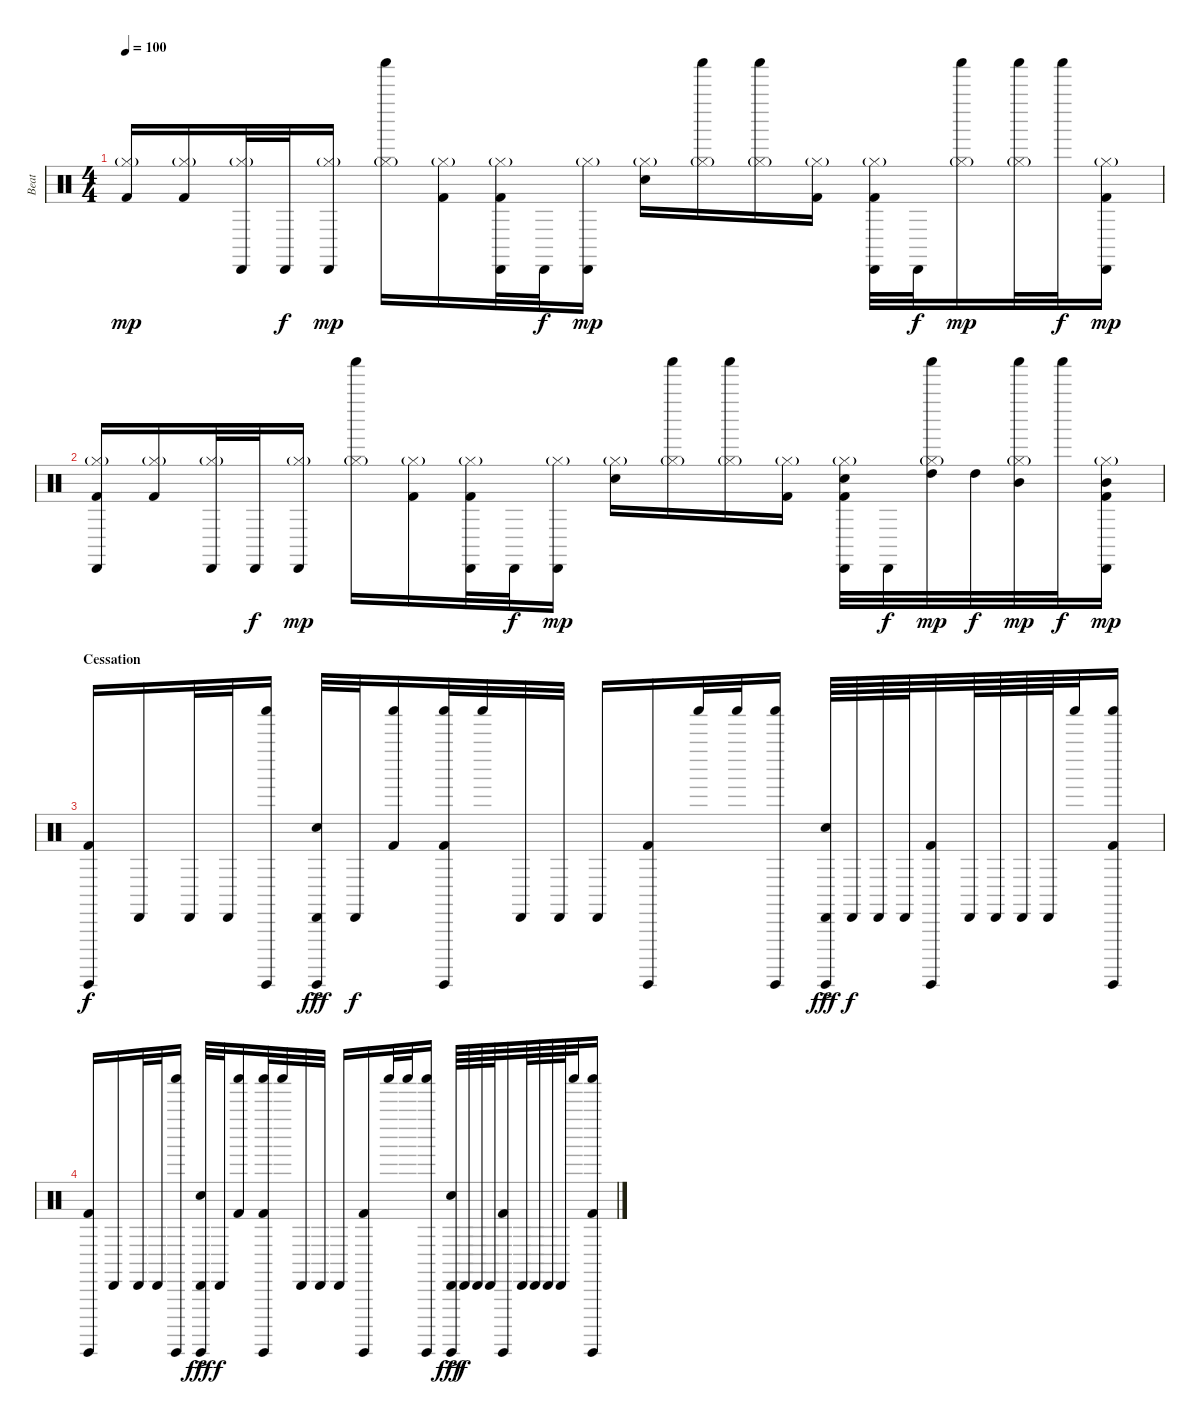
\track ("Beat" "Beat") {instrument percussion}
\staff {score}
\articulation defaults
\ts (4 4)
\tempo 100
\clef neutral
\ks c
("Hi-Hat (closed)"{g} "Kick (hit) 2").16{dy mp} ("Hi-Hat (closed)"{g} "Kick (hit) 2").16 ("Hi-Hat (closed)"{g} "Cabasa (hit)").32 "Cabasa (hit)".32{dy f} ("Hi-Hat (closed)"{g} "Cabasa (hit)").16{dy mp} ("Hi-Hat (closed)"{g} "Shaker (hit)").16 ("Hi-Hat (closed)"{g} "Kick (hit) 2").16 ("Hi-Hat (closed)"{g} "Cabasa (hit)" "Kick (hit) 2").32 "Cabasa (hit)".32{dy f} ("Hi-Hat (closed)"{g} "Cabasa (hit)").16{dy mp} ("Hi-Hat (closed)"{g} "Snare (hit) 2").16 ("Hi-Hat (closed)"{g} "Shaker (hit)").16 ("Hi-Hat (closed)"{g} "Shaker (hit)").16 ("Hi-Hat (closed)"{g} "Kick (hit) 2").16 ("Hi-Hat (closed)"{g} "Cabasa (hit)" "Kick (hit) 2").32 "Cabasa (hit)".32{dy f} ("Hi-Hat (closed)"{g} "Shaker (hit)").16{dy mp} ("Hi-Hat (closed)"{g} "Shaker (hit)").32 "Shaker (hit)".32{dy f} ("Hi-Hat (closed)"{g} "Cabasa (hit)" "Kick (hit) 2").16{dy mp} |
("Hi-Hat (closed)"{g} "Cabasa (hit)" "Kick (hit) 2").16 ("Hi-Hat (closed)"{g} "Kick (hit) 2").16 ("Hi-Hat (closed)"{g} "Cabasa (hit)").32 "Cabasa (hit)".32{dy f} ("Hi-Hat (closed)"{g} "Cabasa (hit)").16{dy mp} ("Hi-Hat (closed)"{g} "Shaker (hit)").16 ("Hi-Hat (closed)"{g} "Kick (hit) 2").16 ("Hi-Hat (closed)"{g} "Cabasa (hit)" "Kick (hit) 2").32 "Cabasa (hit)".32{dy f} ("Hi-Hat (closed)"{g} "Cabasa (hit)").16{dy mp} ("Hi-Hat (closed)"{g} "Snare (hit) 2").16 ("Hi-Hat (closed)"{g} "Shaker (hit)").16 ("Hi-Hat (closed)"{g} "Shaker (hit)").16 ("Hi-Hat (closed)"{g} "Kick (hit) 2").16 ("Hi-Hat (closed)"{g} "Cabasa (hit)" "Snare (hit) 2" "Kick (hit) 2").32 "Cabasa (hit)".32{dy f} ("Hi-Hat (closed)"{g} "Shaker (hit)" "High Tom (hit)").32{dy mp} "High Tom (hit)".32{dy f} ("Hi-Hat (closed)"{g} "Shaker (hit)" "Mid Tom (hit)").32{dy mp} "Shaker (hit)".32{dy f} ("Hi-Hat (closed)"{g} "Cabasa (hit)" "Mid Tom (hit)" "Kick (hit) 2").16{dy mp} |
\section ("" "Cessation")
("Guiro (hit)" "Kick (hit) 2").16{dy f} "Cabasa (hit)".16 "Cabasa (hit)".32 "Cabasa (hit)".32 ("Guiro (hit)" "Shaker (hit)").16 ("Guiro (hit)" "Cabasa (hit)" "Snare (hit) 2"{ac}).32{dy fff} "Cabasa (hit)".32{dy f} ("Shaker (hit)" "Kick (hit) 2").16 ("Guiro (hit)" "Shaker (hit)" "Kick (hit) 2").32 "Shaker (hit)".32 "Cabasa (hit)".32 "Cabasa (hit)".32 "Cabasa (hit)".16 ("Guiro (hit)" "Kick (hit) 2").16 "Shaker (hit)".32 "Shaker (hit)".32 ("Guiro (hit)" "Shaker (hit)").16 ("Guiro (hit)" "Cabasa (hit)" "Snare (hit) 2"{ac}).64{dy fff} "Cabasa (hit)".64{dy f} "Cabasa (hit)".64 "Cabasa (hit)".64 ("Guiro (hit)" "Kick (hit) 2").32 "Cabasa (hit)".64 "Cabasa (hit)".64 "Cabasa (hit)".64 "Cabasa (hit)".64 "Shaker (hit)".32 ("Guiro (hit)" "Shaker (hit)" "Kick (hit) 2").16 |
("Guiro (hit)" "Kick (hit) 2").16 "Cabasa (hit)".16 "Cabasa (hit)".32 "Cabasa (hit)".32 ("Guiro (hit)" "Shaker (hit)").16 ("Guiro (hit)" "Cabasa (hit)" "Snare (hit) 2"{ac}).32{dy fff} "Cabasa (hit)".32{dy f} ("Shaker (hit)" "Kick (hit) 2").16 ("Guiro (hit)" "Shaker (hit)" "Kick (hit) 2").32 "Shaker (hit)".32 "Cabasa (hit)".32 "Cabasa (hit)".32 "Cabasa (hit)".16 ("Guiro (hit)" "Kick (hit) 2").16 "Shaker (hit)".32 "Shaker (hit)".32 ("Guiro (hit)" "Shaker (hit)").16 ("Guiro (hit)" "Cabasa (hit)" "Snare (hit) 2"{ac}).64{dy fff} "Cabasa (hit)".64{dy f} "Cabasa (hit)".64 "Cabasa (hit)".64 ("Guiro (hit)" "Kick (hit) 2").32 "Cabasa (hit)".64 "Cabasa (hit)".64 "Cabasa (hit)".64 "Cabasa (hit)".64 "Shaker (hit)".32 ("Guiro (hit)" "Shaker (hit)" "Kick (hit) 2").16
